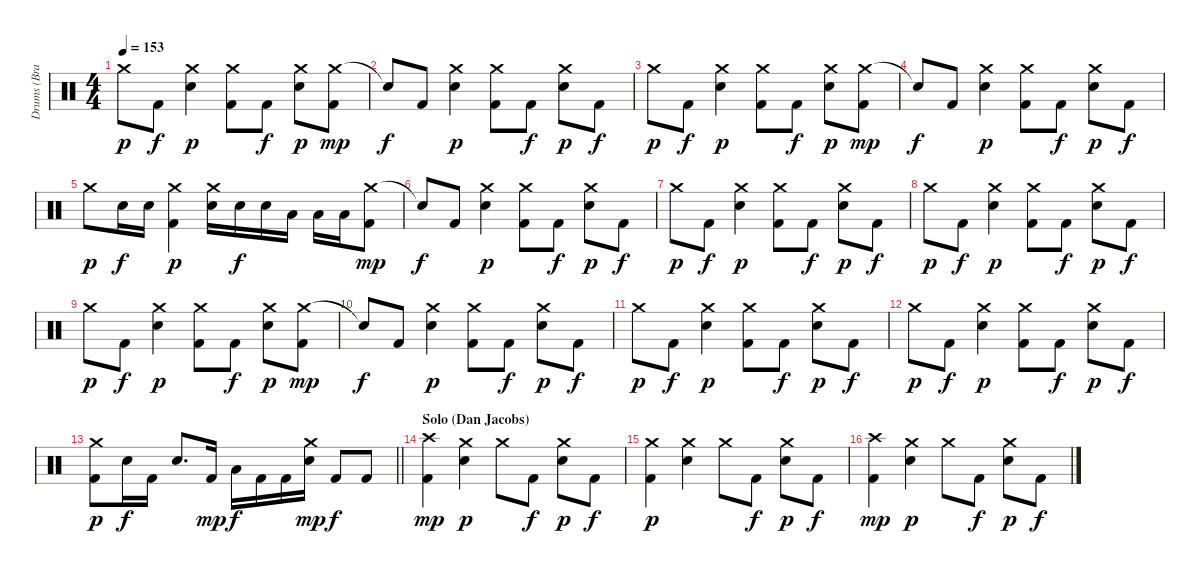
\track ("Drums (Brandon Saller)" "Drums (Bra") {instrument percussion}
\staff {score}
\articulation defaults
\ts (4 4)
\tempo 153
\clef neutral
\ks c "Crash medium (hit)".8{dy p} "Kick (hit) 2".8{dy f}
("Crash medium (hit)" "Electric Snare (hit)").4{dy p} ("Crash medium (hit)" "Kick (hit) 2").8 "Kick (hit) 2".8{dy f} ("Crash medium (hit)" "Electric Snare (hit)").8{dy p} ("Crash medium (hit)" "Kick (hit) 2").8{dy mp} |
"Snare (hit)"{t}.8{dy f} "Kick (hit) 2".8 ("Crash medium (hit)" "Electric Snare (hit)").4{dy p} ("Crash medium (hit)" "Kick (hit) 2").8 "Kick (hit) 2".8{dy f} ("Crash medium (hit)" "Electric Snare (hit)").8{dy p} "Kick (hit) 2".8{dy f} |
"Crash medium (hit)".8{dy p} "Kick (hit) 2".8{dy f} ("Crash medium (hit)" "Electric Snare (hit)").4{dy p} ("Crash medium (hit)" "Kick (hit) 2").8 "Kick (hit) 2".8{dy f} ("Crash medium (hit)" "Electric Snare (hit)").8{dy p} ("Crash medium (hit)" "Kick (hit) 2").8{dy mp} |
"Snare (hit)"{t}.8{dy f} "Kick (hit) 2".8 ("Crash medium (hit)" "Electric Snare (hit)").4{dy p} ("Crash medium (hit)" "Kick (hit) 2").8 "Kick (hit) 2".8{dy f} ("Crash medium (hit)" "Electric Snare (hit)").8{dy p} "Kick (hit) 2".8{dy f} |
"Crash medium (hit)".8{dy p} "Electric Snare (hit)".16{dy f} "Electric Snare (hit)".16 ("Crash medium (hit)" "Kick (hit) 2").4{dy p} ("Crash medium (hit)" "Electric Snare (hit)").16 "Electric Snare (hit)".16{dy f} "Electric Snare (hit)".16 "Low Tom (hit)".16 "Low Tom (hit)".16 "Low Tom (hit)".16 ("Crash medium (hit)" "Kick (hit) 2").8{dy mp} |
"Snare (hit)"{t}.8{dy f} "Kick (hit) 2".8 ("Crash medium (hit)" "Electric Snare (hit)").4{dy p} ("Crash medium (hit)" "Kick (hit) 2").8 "Kick (hit) 2".8{dy f} ("Crash medium (hit)" "Electric Snare (hit)").8{dy p} "Kick (hit) 2".8{dy f} |
"Crash medium (hit)".8{dy p} "Kick (hit) 2".8{dy f} ("Crash medium (hit)" "Electric Snare (hit)").4{dy p} ("Crash medium (hit)" "Kick (hit) 2").8 "Kick (hit) 2".8{dy f} ("Crash medium (hit)" "Electric Snare (hit)").8{dy p} "Kick (hit) 2".8{dy f} |
"Crash medium (hit)".8{dy p} "Kick (hit) 2".8{dy f} ("Crash medium (hit)" "Electric Snare (hit)").4{dy p} ("Crash medium (hit)" "Kick (hit) 2").8 "Kick (hit) 2".8{dy f} ("Crash medium (hit)" "Electric Snare (hit)").8{dy p} "Kick (hit) 2".8{dy f} |
"Crash medium (hit)".8{dy p} "Kick (hit) 2".8{dy f} ("Crash medium (hit)" "Electric Snare (hit)").4{dy p} ("Crash medium (hit)" "Kick (hit) 2").8 "Kick (hit) 2".8{dy f} ("Crash medium (hit)" "Electric Snare (hit)").8{dy p} ("Crash medium (hit)" "Kick (hit) 2").8{dy mp} |
"Snare (hit)"{t}.8{dy f} "Kick (hit) 2".8 ("Crash medium (hit)" "Electric Snare (hit)").4{dy p} ("Crash medium (hit)" "Kick (hit) 2").8 "Kick (hit) 2".8{dy f} ("Crash medium (hit)" "Electric Snare (hit)").8{dy p} "Kick (hit) 2".8{dy f} |
"Crash medium (hit)".8{dy p} "Kick (hit) 2".8{dy f} ("Crash medium (hit)" "Electric Snare (hit)").4{dy p} ("Crash medium (hit)" "Kick (hit) 2").8 "Kick (hit) 2".8{dy f} ("Crash medium (hit)" "Electric Snare (hit)").8{dy p} "Kick (hit) 2".8{dy f} |
"Crash medium (hit)".8{dy p} "Kick (hit) 2".8{dy f} ("Crash medium (hit)" "Electric Snare (hit)").4{dy p} ("Crash medium (hit)" "Kick (hit) 2").8 "Kick (hit) 2".8{dy f} ("Crash medium (hit)" "Electric Snare (hit)").8{dy p} "Kick (hit) 2".8{dy f} |
\barLineRight lightlight
("Crash medium (hit)" "Kick (hit) 2").8{dy p} "Electric Snare (hit)".16{dy f} "Kick (hit) 2".16 "Electric Snare (hit)".8{d} "Kick (hit) 2".16{dy mp} "Low Tom (hit)".16{dy f} "Kick (hit) 2".16 "Kick (hit) 2".16 ("Crash medium (hit)" "Electric Snare (hit)").16{dy mp} "Kick (hit) 2".8{dy f} "Kick (hit) 2".8 |
\section ("" "Solo (Dan Jacobs)")
("Crash high (hit)" "Kick (hit) 2").4{dy mp} ("Crash medium (hit)" "Electric Snare (hit)").4{dy p} "Crash medium (hit)".8 "Kick (hit) 2".8{dy f} ("Crash medium (hit)" "Electric Snare (hit)").8{dy p} "Kick (hit) 2".8{dy f} |
("Crash medium (hit)" "Kick (hit) 2").4{dy p} ("Crash medium (hit)" "Electric Snare (hit)").4 "Crash medium (hit)".8 "Kick (hit) 2".8{dy f} ("Crash medium (hit)" "Electric Snare (hit)").8{dy p} "Kick (hit) 2".8{dy f} |
("Crash high (hit)" "Kick (hit) 2").4{dy mp} ("Crash medium (hit)" "Electric Snare (hit)").4{dy p} "Crash medium (hit)".8 "Kick (hit) 2".8{dy f} ("Crash medium (hit)" "Electric Snare (hit)").8{dy p} "Kick (hit) 2".8{dy f}
